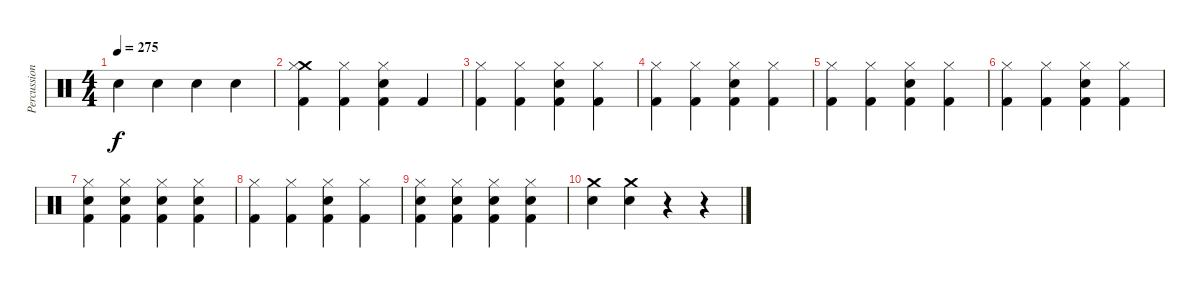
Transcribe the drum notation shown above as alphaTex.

\track ("Percussion" "Percussion") {instrument percussion}
\staff {score}
\articulation defaults
\ts (4 4)
\tempo 275
\clef neutral
\ks c "Electric Snare (hit)".4{dy f} "Electric Snare (hit)".4 "Electric Snare (hit)".4 "Electric Snare (hit)".4
|
("Crash medium (hit)" "Kick (hit) 2" "Hi-Hat (closed)").4 ("Kick (hit) 2" "Hi-Hat (closed)").4 ("Electric Snare (hit)" "Kick (hit) 2" "Hi-Hat (closed)").4 "Kick (hit) 2".4 |
("Kick (hit) 2" "Hi-Hat (closed)").4 ("Kick (hit) 2" "Hi-Hat (closed)").4 ("Electric Snare (hit)" "Kick (hit) 2" "Hi-Hat (closed)").4 ("Kick (hit) 2" "Hi-Hat (closed)").4 |
("Kick (hit) 2" "Hi-Hat (closed)").4 ("Kick (hit) 2" "Hi-Hat (closed)").4 ("Electric Snare (hit)" "Kick (hit) 2" "Hi-Hat (closed)").4 ("Kick (hit) 2" "Hi-Hat (closed)").4 |
("Kick (hit) 2" "Hi-Hat (closed)").4 ("Kick (hit) 2" "Hi-Hat (closed)").4 ("Electric Snare (hit)" "Kick (hit) 2" "Hi-Hat (closed)").4 ("Kick (hit) 2" "Hi-Hat (closed)").4 |
("Kick (hit) 2" "Hi-Hat (closed)").4 ("Kick (hit) 2" "Hi-Hat (closed)").4 ("Electric Snare (hit)" "Kick (hit) 2" "Hi-Hat (closed)").4 ("Kick (hit) 2" "Hi-Hat (closed)").4 |
("Electric Snare (hit)" "Kick (hit) 2" "Hi-Hat (closed)").4 ("Electric Snare (hit)" "Kick (hit) 2" "Hi-Hat (closed)").4 ("Electric Snare (hit)" "Kick (hit) 2" "Hi-Hat (closed)").4 ("Electric Snare (hit)" "Kick (hit) 2" "Hi-Hat (closed)").4 |
("Kick (hit) 2" "Hi-Hat (closed)").4 ("Kick (hit) 2" "Hi-Hat (closed)").4 ("Electric Snare (hit)" "Kick (hit) 2" "Hi-Hat (closed)").4 ("Kick (hit) 2" "Hi-Hat (closed)").4 |
("Electric Snare (hit)" "Kick (hit) 2" "Hi-Hat (closed)").4 ("Electric Snare (hit)" "Kick (hit) 2" "Hi-Hat (closed)").4 ("Electric Snare (hit)" "Kick (hit) 2" "Hi-Hat (closed)").4 ("Electric Snare (hit)" "Kick (hit) 2" "Hi-Hat (closed)").4 |
("Crash medium (hit)" "Snare (hit) 2").4 ("Crash medium (hit)" "Snare (hit) 2").4 r.4 r.4
